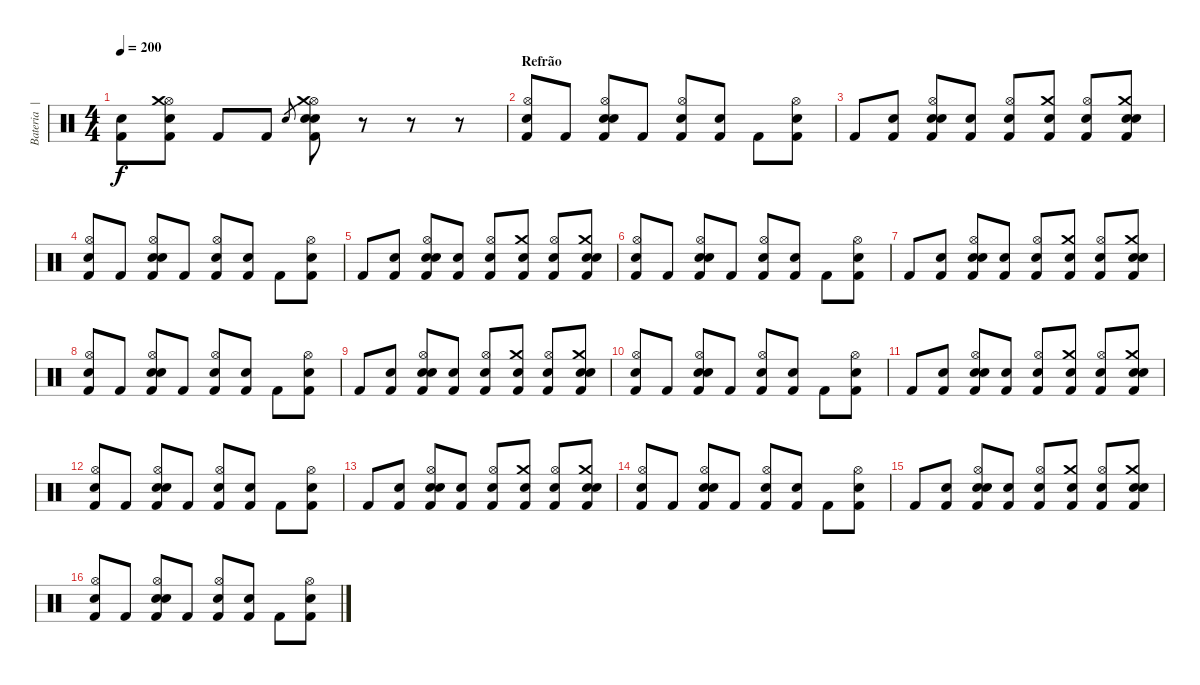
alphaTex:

\track ("Bateria  | Nô" "Bateria  |") {instrument percussion}
\staff {score}
\articulation defaults
\ts (4 4)
\tempo 200
\clef neutral
\ks c
("Snare (hit)"{t} "Kick (hit) 2").8{dy f} ("Hi-Hat (open)" "Crash medium (hit)" "Snare (hit) 2" "Kick (hit) 2").8 "Kick (hit) 2".8 "Kick (hit) 2".8 "Electric Snare (hit)".8{gr} ("Hi-Hat (open)" "Crash medium (hit)" "Snare (hit) 2" "Electric Snare (hit)" "Kick (hit) 2").8 r.8 r.8 r.8 |
\section ("" "Refrão")
("Hi-Hat (open)" "Electric Snare (hit)" "Kick (hit) 2").8 "Kick (hit) 2".8 ("Hi-Hat (open)" "Snare (hit) 2" "Electric Snare (hit)" "Kick (hit) 2").8 "Kick (hit) 2".8 ("Hi-Hat (open)" "Electric Snare (hit)" "Kick (hit) 2").8 ("Electric Snare (hit)" "Kick (hit) 2").8 "Kick (hit) 2".8 ("Hi-Hat (open)" "Snare (hit) 2" "Kick (hit) 2").8 |
"Kick (hit) 2".8 ("Electric Snare (hit)" "Kick (hit) 2").8 ("Hi-Hat (open)" "Electric Snare (hit)" "Snare (hit) 2" "Kick (hit) 2").8 ("Electric Snare (hit)" "Kick (hit) 2").8 ("Hi-Hat (open)" "Electric Snare (hit)" "Kick (hit) 2").8 ("Crash medium (hit)" "Electric Snare (hit)" "Kick (hit) 2").8 ("Hi-Hat (open)" "Electric Snare (hit)" "Kick (hit) 2").8 ("Crash medium (hit)" "Snare (hit) 2" "Electric Snare (hit)" "Kick (hit) 2").8 |
("Hi-Hat (open)" "Electric Snare (hit)" "Kick (hit) 2").8 "Kick (hit) 2".8 ("Hi-Hat (open)" "Snare (hit) 2" "Electric Snare (hit)" "Kick (hit) 2").8 "Kick (hit) 2".8 ("Hi-Hat (open)" "Electric Snare (hit)" "Kick (hit) 2").8 ("Electric Snare (hit)" "Kick (hit) 2").8 "Kick (hit) 2".8 ("Hi-Hat (open)" "Snare (hit) 2" "Kick (hit) 2").8 |
"Kick (hit) 2".8 ("Electric Snare (hit)" "Kick (hit) 2").8 ("Hi-Hat (open)" "Electric Snare (hit)" "Snare (hit) 2" "Kick (hit) 2").8 ("Electric Snare (hit)" "Kick (hit) 2").8 ("Hi-Hat (open)" "Electric Snare (hit)" "Kick (hit) 2").8 ("Crash medium (hit)" "Electric Snare (hit)" "Kick (hit) 2").8 ("Hi-Hat (open)" "Electric Snare (hit)" "Kick (hit) 2").8 ("Crash medium (hit)" "Snare (hit) 2" "Electric Snare (hit)" "Kick (hit) 2").8 |
("Hi-Hat (open)" "Electric Snare (hit)" "Kick (hit) 2").8 "Kick (hit) 2".8 ("Hi-Hat (open)" "Snare (hit) 2" "Electric Snare (hit)" "Kick (hit) 2").8 "Kick (hit) 2".8 ("Hi-Hat (open)" "Electric Snare (hit)" "Kick (hit) 2").8 ("Electric Snare (hit)" "Kick (hit) 2").8 "Kick (hit) 2".8 ("Hi-Hat (open)" "Snare (hit) 2" "Kick (hit) 2").8 |
"Kick (hit) 2".8 ("Electric Snare (hit)" "Kick (hit) 2").8 ("Hi-Hat (open)" "Electric Snare (hit)" "Snare (hit) 2" "Kick (hit) 2").8 ("Electric Snare (hit)" "Kick (hit) 2").8 ("Hi-Hat (open)" "Electric Snare (hit)" "Kick (hit) 2").8 ("Crash medium (hit)" "Electric Snare (hit)" "Kick (hit) 2").8 ("Hi-Hat (open)" "Electric Snare (hit)" "Kick (hit) 2").8 ("Crash medium (hit)" "Snare (hit) 2" "Electric Snare (hit)" "Kick (hit) 2").8 |
("Hi-Hat (open)" "Electric Snare (hit)" "Kick (hit) 2").8 "Kick (hit) 2".8 ("Hi-Hat (open)" "Snare (hit) 2" "Electric Snare (hit)" "Kick (hit) 2").8 "Kick (hit) 2".8 ("Hi-Hat (open)" "Electric Snare (hit)" "Kick (hit) 2").8 ("Electric Snare (hit)" "Kick (hit) 2").8 "Kick (hit) 2".8 ("Hi-Hat (open)" "Snare (hit) 2" "Kick (hit) 2").8 |
"Kick (hit) 2".8 ("Electric Snare (hit)" "Kick (hit) 2").8 ("Hi-Hat (open)" "Electric Snare (hit)" "Snare (hit) 2" "Kick (hit) 2").8 ("Electric Snare (hit)" "Kick (hit) 2").8 ("Hi-Hat (open)" "Electric Snare (hit)" "Kick (hit) 2").8 ("Crash medium (hit)" "Electric Snare (hit)" "Kick (hit) 2").8 ("Hi-Hat (open)" "Electric Snare (hit)" "Kick (hit) 2").8 ("Crash medium (hit)" "Snare (hit) 2" "Electric Snare (hit)" "Kick (hit) 2").8 |
("Hi-Hat (open)" "Electric Snare (hit)" "Kick (hit) 2").8 "Kick (hit) 2".8 ("Hi-Hat (open)" "Snare (hit) 2" "Electric Snare (hit)" "Kick (hit) 2").8 "Kick (hit) 2".8 ("Hi-Hat (open)" "Electric Snare (hit)" "Kick (hit) 2").8 ("Electric Snare (hit)" "Kick (hit) 2").8 "Kick (hit) 2".8 ("Hi-Hat (open)" "Snare (hit) 2" "Kick (hit) 2").8 |
"Kick (hit) 2".8 ("Electric Snare (hit)" "Kick (hit) 2").8 ("Hi-Hat (open)" "Electric Snare (hit)" "Snare (hit) 2" "Kick (hit) 2").8 ("Electric Snare (hit)" "Kick (hit) 2").8 ("Hi-Hat (open)" "Electric Snare (hit)" "Kick (hit) 2").8 ("Crash medium (hit)" "Electric Snare (hit)" "Kick (hit) 2").8 ("Hi-Hat (open)" "Electric Snare (hit)" "Kick (hit) 2").8 ("Crash medium (hit)" "Snare (hit) 2" "Electric Snare (hit)" "Kick (hit) 2").8 |
("Hi-Hat (open)" "Electric Snare (hit)" "Kick (hit) 2").8 "Kick (hit) 2".8 ("Hi-Hat (open)" "Snare (hit) 2" "Electric Snare (hit)" "Kick (hit) 2").8 "Kick (hit) 2".8 ("Hi-Hat (open)" "Electric Snare (hit)" "Kick (hit) 2").8 ("Electric Snare (hit)" "Kick (hit) 2").8 "Kick (hit) 2".8 ("Hi-Hat (open)" "Snare (hit) 2" "Kick (hit) 2").8 |
"Kick (hit) 2".8 ("Electric Snare (hit)" "Kick (hit) 2").8 ("Hi-Hat (open)" "Electric Snare (hit)" "Snare (hit) 2" "Kick (hit) 2").8 ("Electric Snare (hit)" "Kick (hit) 2").8 ("Hi-Hat (open)" "Electric Snare (hit)" "Kick (hit) 2").8 ("Crash medium (hit)" "Electric Snare (hit)" "Kick (hit) 2").8 ("Hi-Hat (open)" "Electric Snare (hit)" "Kick (hit) 2").8 ("Crash medium (hit)" "Snare (hit) 2" "Electric Snare (hit)" "Kick (hit) 2").8 |
("Hi-Hat (open)" "Electric Snare (hit)" "Kick (hit) 2").8 "Kick (hit) 2".8 ("Hi-Hat (open)" "Snare (hit) 2" "Electric Snare (hit)" "Kick (hit) 2").8 "Kick (hit) 2".8 ("Hi-Hat (open)" "Electric Snare (hit)" "Kick (hit) 2").8 ("Electric Snare (hit)" "Kick (hit) 2").8 "Kick (hit) 2".8 ("Hi-Hat (open)" "Snare (hit) 2" "Kick (hit) 2").8 |
"Kick (hit) 2".8 ("Electric Snare (hit)" "Kick (hit) 2").8 ("Hi-Hat (open)" "Electric Snare (hit)" "Snare (hit) 2" "Kick (hit) 2").8 ("Electric Snare (hit)" "Kick (hit) 2").8 ("Hi-Hat (open)" "Electric Snare (hit)" "Kick (hit) 2").8 ("Crash medium (hit)" "Electric Snare (hit)" "Kick (hit) 2").8 ("Hi-Hat (open)" "Electric Snare (hit)" "Kick (hit) 2").8 ("Crash medium (hit)" "Snare (hit) 2" "Electric Snare (hit)" "Kick (hit) 2").8 |
("Hi-Hat (open)" "Electric Snare (hit)" "Kick (hit) 2").8 "Kick (hit) 2".8 ("Hi-Hat (open)" "Snare (hit) 2" "Electric Snare (hit)" "Kick (hit) 2").8 "Kick (hit) 2".8 ("Hi-Hat (open)" "Electric Snare (hit)" "Kick (hit) 2").8 ("Electric Snare (hit)" "Kick (hit) 2").8 "Kick (hit) 2".8 ("Hi-Hat (open)" "Snare (hit) 2" "Kick (hit) 2").8
